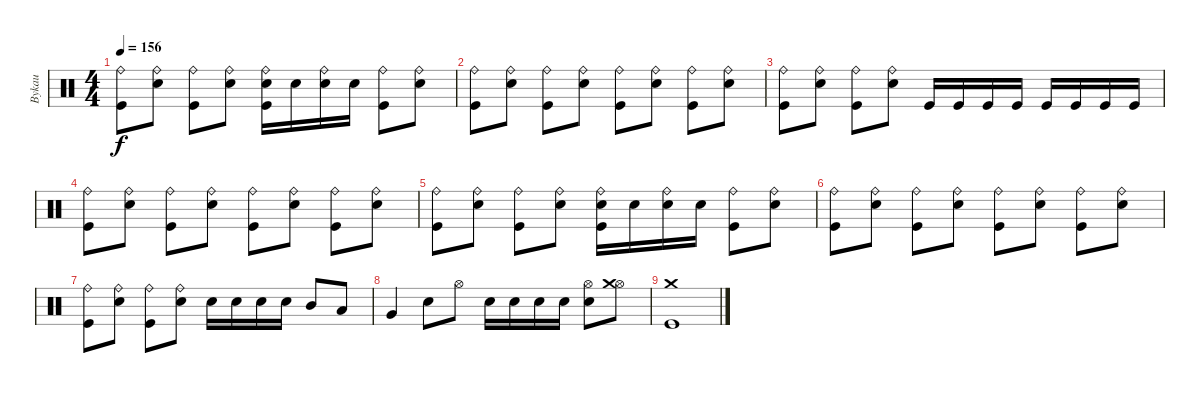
\track ("Bykau" "Bykau") {instrument percussion}
\staff {score}
\articulation defaults
\ts (4 4)
\tempo 156
\clef neutral
\ks c
("Ride (bell)" "Kick (hit)").8{dy f} ("Ride (bell)" "Electric Snare (hit)").8 ("Ride (bell)" "Kick (hit)").8 ("Ride (bell)" "Electric Snare (hit)").8 ("Ride (bell)" "Electric Snare (hit)" "Kick (hit)").16 "Electric Snare (hit)".16 ("Ride (bell)" "Electric Snare (hit)").16 "Electric Snare (hit)".16 ("Ride (bell)" "Kick (hit)").8 ("Ride (bell)" "Electric Snare (hit)").8 |
("Ride (bell)" "Kick (hit)").8 ("Ride (bell)" "Electric Snare (hit)").8 ("Ride (bell)" "Kick (hit)").8 ("Ride (bell)" "Electric Snare (hit)").8 ("Ride (bell)" "Kick (hit)").8 ("Ride (bell)" "Electric Snare (hit)").8 ("Ride (bell)" "Kick (hit)").8 ("Ride (bell)" "Electric Snare (hit)").8 |
("Ride (bell)" "Kick (hit)").8 ("Ride (bell)" "Electric Snare (hit)").8 ("Ride (bell)" "Kick (hit)").8 ("Ride (bell)" "Electric Snare (hit)").8 "Kick (hit)".16 "Kick (hit)".16 "Kick (hit)".16 "Kick (hit)".16 "Kick (hit)".16 "Kick (hit)".16 "Kick (hit)".16 "Kick (hit)".16 |
("Ride (bell)" "Kick (hit)").8 ("Ride (bell)" "Electric Snare (hit)").8 ("Ride (bell)" "Kick (hit)").8 ("Ride (bell)" "Electric Snare (hit)").8 ("Ride (bell)" "Kick (hit)").8 ("Ride (bell)" "Electric Snare (hit)").8 ("Ride (bell)" "Kick (hit)").8 ("Ride (bell)" "Electric Snare (hit)").8 |
("Ride (bell)" "Kick (hit)").8 ("Ride (bell)" "Electric Snare (hit)").8 ("Ride (bell)" "Kick (hit)").8 ("Ride (bell)" "Electric Snare (hit)").8 ("Ride (bell)" "Electric Snare (hit)" "Kick (hit)").16 "Electric Snare (hit)".16 ("Ride (bell)" "Electric Snare (hit)").16 "Electric Snare (hit)".16 ("Ride (bell)" "Kick (hit)").8 ("Ride (bell)" "Electric Snare (hit)").8 |
("Ride (bell)" "Kick (hit)").8 ("Ride (bell)" "Electric Snare (hit)").8 ("Ride (bell)" "Kick (hit)").8 ("Ride (bell)" "Electric Snare (hit)").8 ("Ride (bell)" "Kick (hit)").8 ("Ride (bell)" "Electric Snare (hit)").8 ("Ride (bell)" "Kick (hit)").8 ("Ride (bell)" "Electric Snare (hit)").8 |
("Ride (bell)" "Kick (hit)").8 ("Ride (bell)" "Electric Snare (hit)").8 ("Ride (bell)" "Kick (hit)").8 ("Ride (bell)" "Electric Snare (hit)").8 "Electric Snare (hit)".16 "Electric Snare (hit)".16 "Electric Snare (hit)".16 "Electric Snare (hit)".16 "Mid Tom (hit)".8 "Low Tom (hit)".8 |
"Very Low Tom (hit)".4 "Electric Snare (hit)".8 "Hi-Hat (open)".8 "Electric Snare (hit)".16 "Electric Snare (hit)".16 "Electric Snare (hit)".16 "Electric Snare (hit)".16 ("Hi-Hat (open)" "Electric Snare (hit)").8 ("Hi-Hat (open)" "Crash medium (hit)").8 |
("Crash medium (hit)" "Kick (hit)").1
